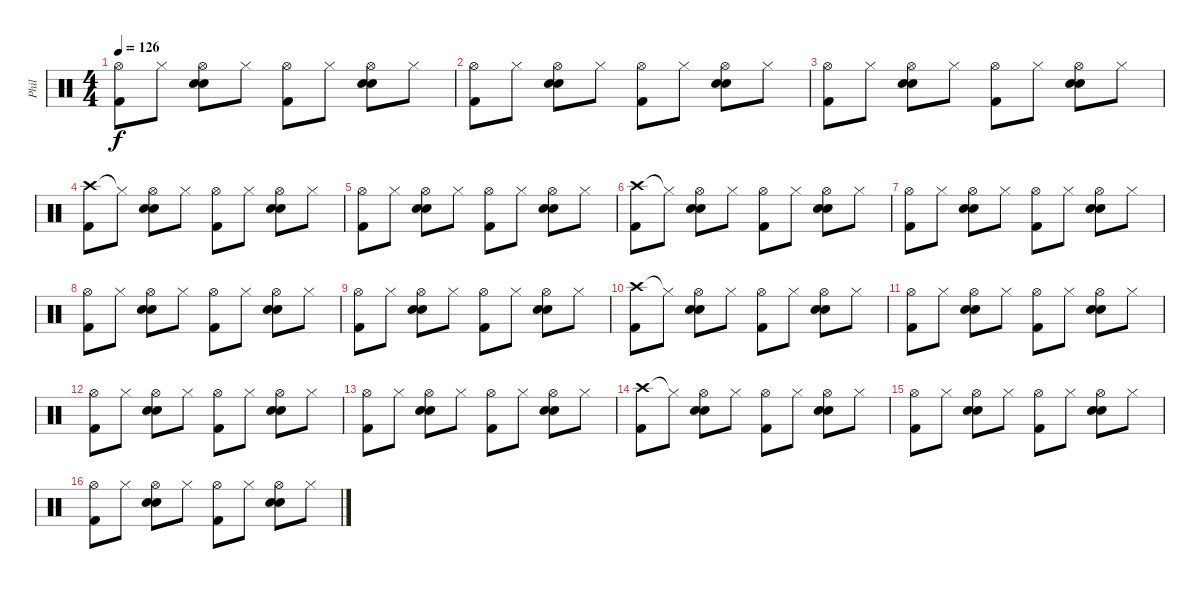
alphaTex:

\track ("Phil" "Phil") {instrument percussion}
\staff {score}
\articulation defaults
\ts (4 4)
\tempo 126
\clef neutral
\ks c
("Hi-Hat (open)" "Kick (hit) 2").8{dy f} "Hi-Hat (closed)".8 ("Hi-Hat (open)" "Snare (hit) 2" "Electric Snare (hit)").8 "Hi-Hat (closed)".8 ("Hi-Hat (open)" "Kick (hit) 2").8 "Hi-Hat (closed)".8 ("Hi-Hat (open)" "Snare (hit) 2" "Electric Snare (hit)").8 "Hi-Hat (closed)".8 |
("Hi-Hat (open)" "Kick (hit) 2").8 "Hi-Hat (closed)".8 ("Hi-Hat (open)" "Snare (hit) 2" "Electric Snare (hit)").8 "Hi-Hat (closed)".8 ("Hi-Hat (open)" "Kick (hit) 2").8 "Hi-Hat (closed)".8 ("Hi-Hat (open)" "Snare (hit) 2" "Electric Snare (hit)").8 "Hi-Hat (closed)".8 |
("Hi-Hat (open)" "Kick (hit) 2").8 "Hi-Hat (closed)".8 ("Hi-Hat (open)" "Snare (hit) 2" "Electric Snare (hit)").8 "Hi-Hat (closed)".8 ("Hi-Hat (open)" "Kick (hit) 2").8 "Hi-Hat (closed)".8 ("Hi-Hat (open)" "Snare (hit) 2" "Electric Snare (hit)").8 "Hi-Hat (closed)".8 |
("Crash high (hit)" "Kick (hit) 2").8 "Hi-Hat (closed)"{t}.8 ("Hi-Hat (open)" "Snare (hit) 2" "Electric Snare (hit)").8 "Hi-Hat (closed)".8 ("Hi-Hat (open)" "Kick (hit) 2").8 "Hi-Hat (closed)".8 ("Hi-Hat (open)" "Snare (hit) 2" "Electric Snare (hit)").8 "Hi-Hat (closed)".8 |
("Hi-Hat (open)" "Kick (hit) 2").8 "Hi-Hat (closed)".8 ("Hi-Hat (open)" "Snare (hit) 2" "Electric Snare (hit)").8 "Hi-Hat (closed)".8 ("Hi-Hat (open)" "Kick (hit) 2").8 "Hi-Hat (closed)".8 ("Hi-Hat (open)" "Snare (hit) 2" "Electric Snare (hit)").8 "Hi-Hat (closed)".8 |
("Crash high (hit)" "Kick (hit) 2").8 "Hi-Hat (closed)"{t}.8 ("Hi-Hat (open)" "Snare (hit) 2" "Electric Snare (hit)").8 "Hi-Hat (closed)".8 ("Hi-Hat (open)" "Kick (hit) 2").8 "Hi-Hat (closed)".8 ("Hi-Hat (open)" "Snare (hit) 2" "Electric Snare (hit)").8 "Hi-Hat (closed)".8 |
("Hi-Hat (open)" "Kick (hit) 2").8 "Hi-Hat (closed)".8 ("Hi-Hat (open)" "Snare (hit) 2" "Electric Snare (hit)").8 "Hi-Hat (closed)".8 ("Hi-Hat (open)" "Kick (hit) 2").8 "Hi-Hat (closed)".8 ("Hi-Hat (open)" "Snare (hit) 2" "Electric Snare (hit)").8 "Hi-Hat (closed)".8 |
("Hi-Hat (open)" "Kick (hit) 2").8 "Hi-Hat (closed)".8 ("Hi-Hat (open)" "Snare (hit) 2" "Electric Snare (hit)").8 "Hi-Hat (closed)".8 ("Hi-Hat (open)" "Kick (hit) 2").8 "Hi-Hat (closed)".8 ("Hi-Hat (open)" "Snare (hit) 2" "Electric Snare (hit)").8 "Hi-Hat (closed)".8 |
("Hi-Hat (open)" "Kick (hit) 2").8 "Hi-Hat (closed)".8 ("Hi-Hat (open)" "Snare (hit) 2" "Electric Snare (hit)").8 "Hi-Hat (closed)".8 ("Hi-Hat (open)" "Kick (hit) 2").8 "Hi-Hat (closed)".8 ("Hi-Hat (open)" "Snare (hit) 2" "Electric Snare (hit)").8 "Hi-Hat (closed)".8 |
("Crash high (hit)" "Kick (hit) 2").8 "Hi-Hat (closed)"{t}.8 ("Hi-Hat (open)" "Snare (hit) 2" "Electric Snare (hit)").8 "Hi-Hat (closed)".8 ("Hi-Hat (open)" "Kick (hit) 2").8 "Hi-Hat (closed)".8 ("Hi-Hat (open)" "Snare (hit) 2" "Electric Snare (hit)").8 "Hi-Hat (closed)".8 |
("Hi-Hat (open)" "Kick (hit) 2").8 "Hi-Hat (closed)".8 ("Hi-Hat (open)" "Snare (hit) 2" "Electric Snare (hit)").8 "Hi-Hat (closed)".8 ("Hi-Hat (open)" "Kick (hit) 2").8 "Hi-Hat (closed)".8 ("Hi-Hat (open)" "Snare (hit) 2" "Electric Snare (hit)").8 "Hi-Hat (closed)".8 |
("Hi-Hat (open)" "Kick (hit) 2").8 "Hi-Hat (closed)".8 ("Hi-Hat (open)" "Snare (hit) 2" "Electric Snare (hit)").8 "Hi-Hat (closed)".8 ("Hi-Hat (open)" "Kick (hit) 2").8 "Hi-Hat (closed)".8 ("Hi-Hat (open)" "Snare (hit) 2" "Electric Snare (hit)").8 "Hi-Hat (closed)".8 |
("Hi-Hat (open)" "Kick (hit) 2").8 "Hi-Hat (closed)".8 ("Hi-Hat (open)" "Snare (hit) 2" "Electric Snare (hit)").8 "Hi-Hat (closed)".8 ("Hi-Hat (open)" "Kick (hit) 2").8 "Hi-Hat (closed)".8 ("Hi-Hat (open)" "Snare (hit) 2" "Electric Snare (hit)").8 "Hi-Hat (closed)".8 |
("Crash high (hit)" "Kick (hit) 2").8 "Hi-Hat (closed)"{t}.8 ("Hi-Hat (open)" "Snare (hit) 2" "Electric Snare (hit)").8 "Hi-Hat (closed)".8 ("Hi-Hat (open)" "Kick (hit) 2").8 "Hi-Hat (closed)".8 ("Hi-Hat (open)" "Snare (hit) 2" "Electric Snare (hit)").8 "Hi-Hat (closed)".8 |
("Hi-Hat (open)" "Kick (hit) 2").8 "Hi-Hat (closed)".8 ("Hi-Hat (open)" "Snare (hit) 2" "Electric Snare (hit)").8 "Hi-Hat (closed)".8 ("Hi-Hat (open)" "Kick (hit) 2").8 "Hi-Hat (closed)".8 ("Hi-Hat (open)" "Snare (hit) 2" "Electric Snare (hit)").8 "Hi-Hat (closed)".8 |
("Hi-Hat (open)" "Kick (hit) 2").8 "Hi-Hat (closed)".8 ("Hi-Hat (open)" "Snare (hit) 2" "Electric Snare (hit)").8 "Hi-Hat (closed)".8 ("Hi-Hat (open)" "Kick (hit) 2").8 "Hi-Hat (closed)".8 ("Hi-Hat (open)" "Snare (hit) 2" "Electric Snare (hit)").8 "Hi-Hat (closed)".8
